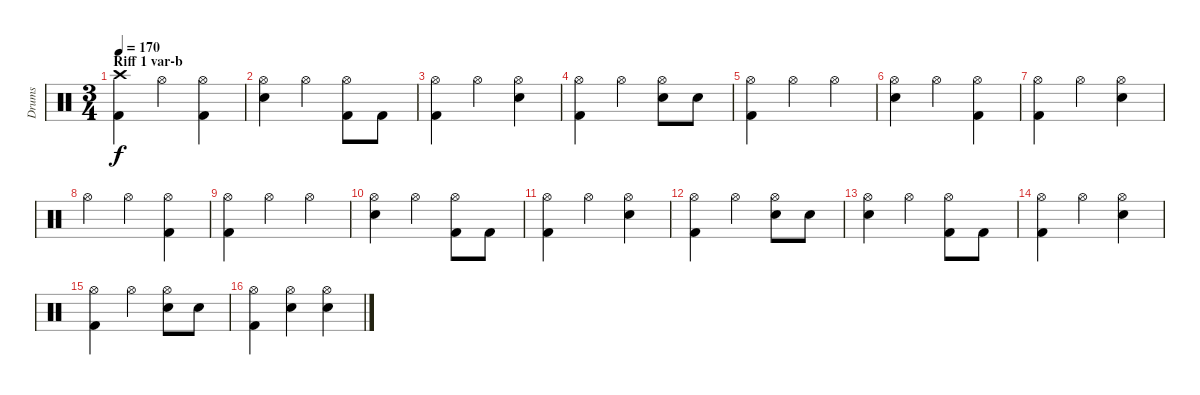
\track ("Drums" "Drums") {instrument percussion}
\staff {score}
\articulation defaults
\ts (3 4)
\section ("" "Riff 1 var-b")
\tempo 170
\clef neutral
\ks c
("Crash high (hit)" "Kick (hit) 2").4{dy f} "Hi-Hat (open)".4 ("Hi-Hat (open)" "Kick (hit) 2").4 |
("Hi-Hat (open)" "Electric Snare (hit)").4 "Hi-Hat (open)".4 ("Hi-Hat (open)" "Kick (hit) 2").8 "Kick (hit) 2".8 |
("Hi-Hat (open)" "Kick (hit) 2").4 "Hi-Hat (open)".4 ("Hi-Hat (open)" "Electric Snare (hit)").4 |
("Hi-Hat (open)" "Kick (hit) 2").4 "Hi-Hat (open)".4 ("Hi-Hat (open)" "Electric Snare (hit)").8 "Electric Snare (hit)".8 |
("Hi-Hat (open)" "Kick (hit) 2").4 "Hi-Hat (open)".4 "Hi-Hat (open)".4 |
("Hi-Hat (open)" "Electric Snare (hit)").4 "Hi-Hat (open)".4 ("Hi-Hat (open)" "Kick (hit) 2").4 |
("Hi-Hat (open)" "Kick (hit) 2").4 "Hi-Hat (open)".4 ("Hi-Hat (open)" "Electric Snare (hit)").4 |
"Hi-Hat (open)".4 "Hi-Hat (open)".4 ("Hi-Hat (open)" "Kick (hit) 2").4 |
("Hi-Hat (open)" "Kick (hit) 2").4 "Hi-Hat (open)".4 "Hi-Hat (open)".4 |
("Hi-Hat (open)" "Electric Snare (hit)").4 "Hi-Hat (open)".4 ("Hi-Hat (open)" "Kick (hit) 2").8 "Kick (hit) 2".8 |
("Hi-Hat (open)" "Kick (hit) 2").4 "Hi-Hat (open)".4 ("Hi-Hat (open)" "Electric Snare (hit)").4 |
("Hi-Hat (open)" "Kick (hit) 2").4 "Hi-Hat (open)".4 ("Hi-Hat (open)" "Electric Snare (hit)").8 "Electric Snare (hit)".8 |
("Hi-Hat (open)" "Electric Snare (hit)").4 "Hi-Hat (open)".4 ("Hi-Hat (open)" "Kick (hit) 2").8 "Kick (hit) 2".8 |
("Hi-Hat (open)" "Kick (hit) 2").4 "Hi-Hat (open)".4 ("Hi-Hat (open)" "Electric Snare (hit)").4 |
("Hi-Hat (open)" "Kick (hit) 2").4 "Hi-Hat (open)".4 ("Hi-Hat (open)" "Electric Snare (hit)").8 "Electric Snare (hit)".8 |
("Hi-Hat (open)" "Kick (hit) 2").4 ("Hi-Hat (open)" "Electric Snare (hit)").4 ("Hi-Hat (open)" "Electric Snare (hit)").4
